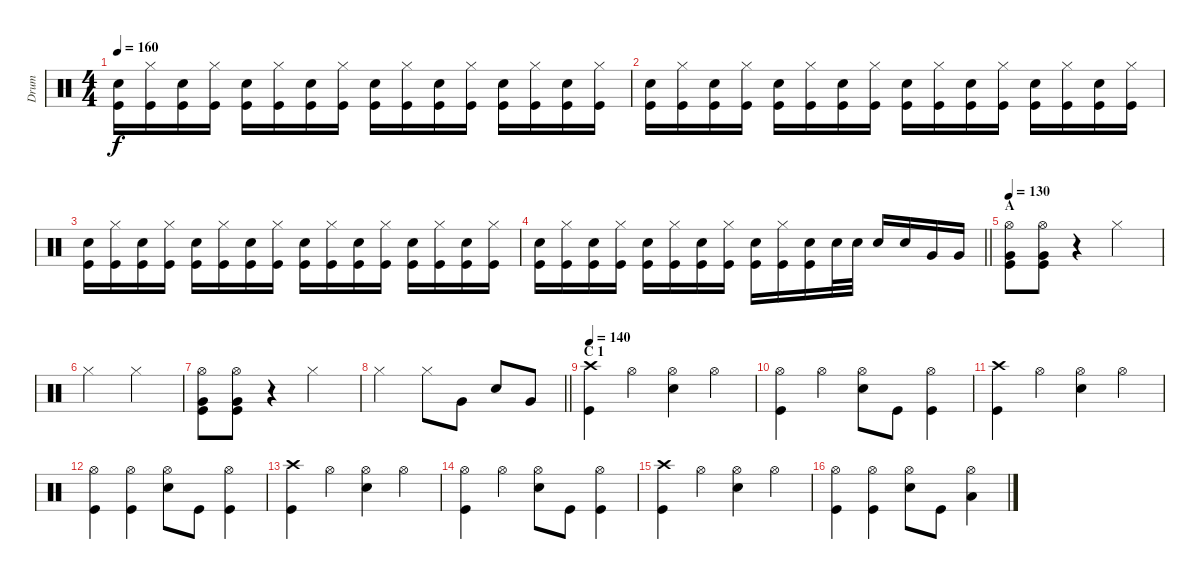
\track ("Drum" "Drum") {instrument percussion}
\staff
\articulation defaults
\ts (4 4)
\tempo 160
\clef neutral
\ks c
("Snare (hit) 2" "Kick (hit)").16{dy f} ("Hi-Hat (closed)" "Kick (hit)").16 ("Snare (hit) 2" "Kick (hit)").16 ("Hi-Hat (closed)" "Kick (hit)").16 ("Snare (hit) 2" "Kick (hit)").16 ("Hi-Hat (closed)" "Kick (hit)").16 ("Snare (hit) 2" "Kick (hit)").16 ("Hi-Hat (closed)" "Kick (hit)").16 ("Snare (hit) 2" "Kick (hit)").16 ("Hi-Hat (closed)" "Kick (hit)").16 ("Snare (hit) 2" "Kick (hit)").16 ("Hi-Hat (closed)" "Kick (hit)").16 ("Snare (hit) 2" "Kick (hit)").16 ("Hi-Hat (closed)" "Kick (hit)").16 ("Snare (hit) 2" "Kick (hit)").16 ("Hi-Hat (closed)" "Kick (hit)").16 |
("Snare (hit) 2" "Kick (hit)").16 ("Hi-Hat (closed)" "Kick (hit)").16 ("Snare (hit) 2" "Kick (hit)").16 ("Hi-Hat (closed)" "Kick (hit)").16 ("Snare (hit) 2" "Kick (hit)").16 ("Hi-Hat (closed)" "Kick (hit)").16 ("Snare (hit) 2" "Kick (hit)").16 ("Hi-Hat (closed)" "Kick (hit)").16 ("Snare (hit) 2" "Kick (hit)").16 ("Hi-Hat (closed)" "Kick (hit)").16 ("Snare (hit) 2" "Kick (hit)").16 ("Hi-Hat (closed)" "Kick (hit)").16 ("Snare (hit) 2" "Kick (hit)").16 ("Hi-Hat (closed)" "Kick (hit)").16 ("Snare (hit) 2" "Kick (hit)").16 ("Hi-Hat (closed)" "Kick (hit)").16 |
("Snare (hit) 2" "Kick (hit)").16 ("Hi-Hat (closed)" "Kick (hit)").16 ("Snare (hit) 2" "Kick (hit)").16 ("Hi-Hat (closed)" "Kick (hit)").16 ("Snare (hit) 2" "Kick (hit)").16 ("Hi-Hat (closed)" "Kick (hit)").16 ("Snare (hit) 2" "Kick (hit)").16 ("Hi-Hat (closed)" "Kick (hit)").16 ("Snare (hit) 2" "Kick (hit)").16 ("Hi-Hat (closed)" "Kick (hit)").16 ("Snare (hit) 2" "Kick (hit)").16 ("Hi-Hat (closed)" "Kick (hit)").16 ("Snare (hit) 2" "Kick (hit)").16 ("Hi-Hat (closed)" "Kick (hit)").16 ("Snare (hit) 2" "Kick (hit)").16 ("Hi-Hat (closed)" "Kick (hit)").16 |
\barLineRight lightlight
("Snare (hit) 2" "Kick (hit)").16 ("Hi-Hat (closed)" "Kick (hit)").16 ("Snare (hit) 2" "Kick (hit)").16 ("Hi-Hat (closed)" "Kick (hit)").16 ("Snare (hit) 2" "Kick (hit)").16 ("Hi-Hat (closed)" "Kick (hit)").16 ("Snare (hit) 2" "Kick (hit)").16 ("Hi-Hat (closed)" "Kick (hit)").16 ("Snare (hit) 2" "Kick (hit)").16 ("Hi-Hat (closed)" "Kick (hit)").16 ("Snare (hit) 2" "Kick (hit)").16 "Snare (hit) 2".32 "Snare (hit) 2".32 "Snare (hit) 2".16 "Snare (hit) 2".16 "Very Low Tom (hit)".16 "Very Low Tom (hit)".16 |
\section ("" "A")
\tempo 130
("Hi-Hat (open)" "Very Low Tom (hit)" "Kick (hit)").8 ("Hi-Hat (open)" "Very Low Tom (hit)" "Kick (hit)").8 r.4 "Hi-Hat (closed)".2 |
"Hi-Hat (closed)".2 "Hi-Hat (closed)".2 |
("Hi-Hat (open)" "Very Low Tom (hit)" "Kick (hit)").8 ("Hi-Hat (open)" "Very Low Tom (hit)" "Kick (hit)").8 r.4 "Hi-Hat (closed)".2 |
\barLineRight lightlight "Hi-Hat (closed)".2 "Hi-Hat (closed)".8 "Very Low Tom (hit)".8 "Snare (hit) 2".8 "Very Low Tom (hit)".8
|
\section ("" "C 1")
\tempo 140
("Crash high (hit)" "Kick (hit)").4 "Hi-Hat (open)".4 ("Hi-Hat (open)" "Snare (hit) 2").4 "Hi-Hat (open)".4 |
("Hi-Hat (open)" "Kick (hit)").4 "Hi-Hat (open)".4 ("Hi-Hat (open)" "Snare (hit) 2").8 "Kick (hit)".8 ("Hi-Hat (open)" "Kick (hit)").4 |
("Crash high (hit)" "Kick (hit)").4 "Hi-Hat (open)".4 ("Hi-Hat (open)" "Snare (hit) 2").4 "Hi-Hat (open)".4 |
("Hi-Hat (open)" "Kick (hit)").4 ("Hi-Hat (open)" "Kick (hit)").4 ("Hi-Hat (open)" "Snare (hit) 2").8 "Kick (hit)".8 ("Hi-Hat (open)" "Kick (hit)").4 |
("Crash high (hit)" "Kick (hit)").4 "Hi-Hat (open)".4 ("Hi-Hat (open)" "Snare (hit) 2").4 "Hi-Hat (open)".4 |
("Hi-Hat (open)" "Kick (hit)").4 "Hi-Hat (open)".4 ("Hi-Hat (open)" "Snare (hit) 2").8 "Kick (hit)".8 ("Hi-Hat (open)" "Kick (hit)").4 |
("Crash high (hit)" "Kick (hit)").4 "Hi-Hat (open)".4 ("Hi-Hat (open)" "Snare (hit) 2").4 "Hi-Hat (open)".4 |
("Hi-Hat (open)" "Kick (hit)").4 ("Hi-Hat (open)" "Kick (hit)").4 ("Hi-Hat (open)" "Snare (hit) 2").8 "Kick (hit)".8 ("Hi-Hat (open)" "Low Floor Tom (hit)").4
